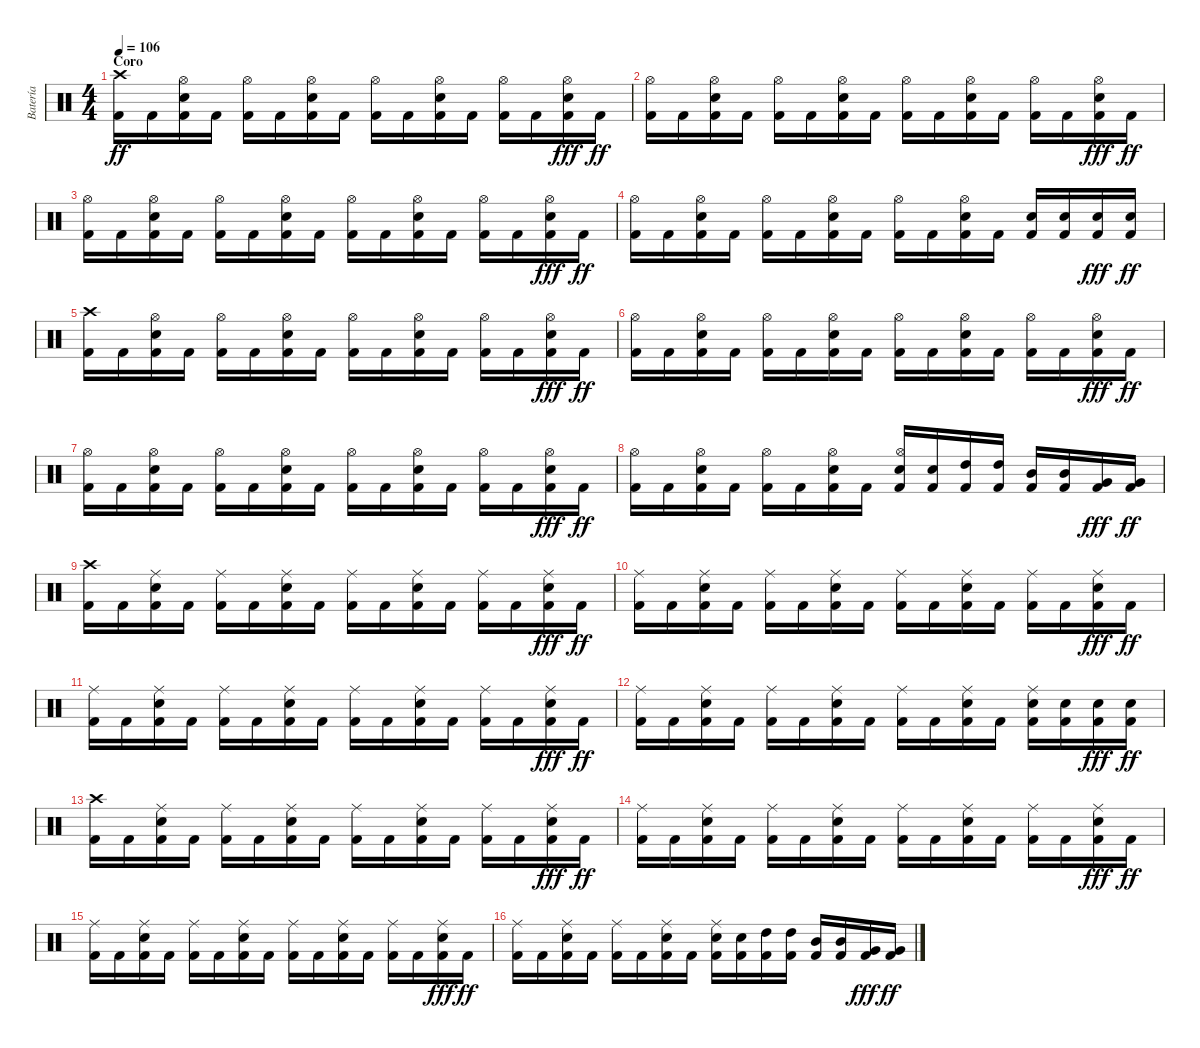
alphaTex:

\track ("Batería" "Batería") {instrument percussion}
\staff {score}
\articulation defaults
\ts (4 4)
\section ("" "Coro")
\tempo 106
\clef neutral
\ks c
("Crash high (hit)" "Kick (hit) 2").16{dy ff} "Kick (hit) 2".16 ("Hi-Hat (open)" "Electric Snare (hit)" "Kick (hit) 2").16 "Kick (hit) 2".16 ("Hi-Hat (open)" "Kick (hit) 2").16 "Kick (hit) 2".16 ("Hi-Hat (open)" "Electric Snare (hit)" "Kick (hit) 2").16 "Kick (hit) 2".16 ("Hi-Hat (open)" "Kick (hit) 2").16 "Kick (hit) 2".16 ("Hi-Hat (open)" "Electric Snare (hit)" "Kick (hit) 2").16 "Kick (hit) 2".16 ("Hi-Hat (open)" "Kick (hit) 2").16 "Kick (hit) 2".16 ("Hi-Hat (open)" "Electric Snare (hit)" "Kick (hit) 2").16{dy fff} "Kick (hit) 2".16{dy ff} |
("Hi-Hat (open)" "Kick (hit) 2").16 "Kick (hit) 2".16 ("Hi-Hat (open)" "Electric Snare (hit)" "Kick (hit) 2").16 "Kick (hit) 2".16 ("Hi-Hat (open)" "Kick (hit) 2").16 "Kick (hit) 2".16 ("Hi-Hat (open)" "Electric Snare (hit)" "Kick (hit) 2").16 "Kick (hit) 2".16 ("Hi-Hat (open)" "Kick (hit) 2").16 "Kick (hit) 2".16 ("Hi-Hat (open)" "Electric Snare (hit)" "Kick (hit) 2").16 "Kick (hit) 2".16 ("Hi-Hat (open)" "Kick (hit) 2").16 "Kick (hit) 2".16 ("Hi-Hat (open)" "Electric Snare (hit)" "Kick (hit) 2").16{dy fff} "Kick (hit) 2".16{dy ff} |
("Hi-Hat (open)" "Kick (hit) 2").16 "Kick (hit) 2".16 ("Hi-Hat (open)" "Electric Snare (hit)" "Kick (hit) 2").16 "Kick (hit) 2".16 ("Hi-Hat (open)" "Kick (hit) 2").16 "Kick (hit) 2".16 ("Hi-Hat (open)" "Electric Snare (hit)" "Kick (hit) 2").16 "Kick (hit) 2".16 ("Hi-Hat (open)" "Kick (hit) 2").16 "Kick (hit) 2".16 ("Hi-Hat (open)" "Electric Snare (hit)" "Kick (hit) 2").16 "Kick (hit) 2".16 ("Hi-Hat (open)" "Kick (hit) 2").16 "Kick (hit) 2".16 ("Hi-Hat (open)" "Electric Snare (hit)" "Kick (hit) 2").16{dy fff} "Kick (hit) 2".16{dy ff} |
("Hi-Hat (open)" "Kick (hit) 2").16 "Kick (hit) 2".16 ("Hi-Hat (open)" "Electric Snare (hit)" "Kick (hit) 2").16 "Kick (hit) 2".16 ("Hi-Hat (open)" "Kick (hit) 2").16 "Kick (hit) 2".16 ("Hi-Hat (open)" "Electric Snare (hit)" "Kick (hit) 2").16 "Kick (hit) 2".16 ("Hi-Hat (open)" "Kick (hit) 2").16 "Kick (hit) 2".16 ("Hi-Hat (open)" "Electric Snare (hit)" "Kick (hit) 2").16 "Kick (hit) 2".16 ("Electric Snare (hit)" "Kick (hit) 2").16 ("Electric Snare (hit)" "Kick (hit) 2").16 ("Electric Snare (hit)" "Kick (hit) 2").16{dy fff} ("Electric Snare (hit)" "Kick (hit) 2").16{dy ff} |
("Crash high (hit)" "Kick (hit) 2").16 "Kick (hit) 2".16 ("Hi-Hat (open)" "Electric Snare (hit)" "Kick (hit) 2").16 "Kick (hit) 2".16 ("Hi-Hat (open)" "Kick (hit) 2").16 "Kick (hit) 2".16 ("Hi-Hat (open)" "Electric Snare (hit)" "Kick (hit) 2").16 "Kick (hit) 2".16 ("Hi-Hat (open)" "Kick (hit) 2").16 "Kick (hit) 2".16 ("Hi-Hat (open)" "Electric Snare (hit)" "Kick (hit) 2").16 "Kick (hit) 2".16 ("Hi-Hat (open)" "Kick (hit) 2").16 "Kick (hit) 2".16 ("Hi-Hat (open)" "Electric Snare (hit)" "Kick (hit) 2").16{dy fff} "Kick (hit) 2".16{dy ff} |
("Hi-Hat (open)" "Kick (hit) 2").16 "Kick (hit) 2".16 ("Hi-Hat (open)" "Electric Snare (hit)" "Kick (hit) 2").16 "Kick (hit) 2".16 ("Hi-Hat (open)" "Kick (hit) 2").16 "Kick (hit) 2".16 ("Hi-Hat (open)" "Electric Snare (hit)" "Kick (hit) 2").16 "Kick (hit) 2".16 ("Hi-Hat (open)" "Kick (hit) 2").16 "Kick (hit) 2".16 ("Hi-Hat (open)" "Electric Snare (hit)" "Kick (hit) 2").16 "Kick (hit) 2".16 ("Hi-Hat (open)" "Kick (hit) 2").16 "Kick (hit) 2".16 ("Hi-Hat (open)" "Electric Snare (hit)" "Kick (hit) 2").16{dy fff} "Kick (hit) 2".16{dy ff} |
("Hi-Hat (open)" "Kick (hit) 2").16 "Kick (hit) 2".16 ("Hi-Hat (open)" "Electric Snare (hit)" "Kick (hit) 2").16 "Kick (hit) 2".16 ("Hi-Hat (open)" "Kick (hit) 2").16 "Kick (hit) 2".16 ("Hi-Hat (open)" "Electric Snare (hit)" "Kick (hit) 2").16 "Kick (hit) 2".16 ("Hi-Hat (open)" "Kick (hit) 2").16 "Kick (hit) 2".16 ("Hi-Hat (open)" "Electric Snare (hit)" "Kick (hit) 2").16 "Kick (hit) 2".16 ("Hi-Hat (open)" "Kick (hit) 2").16 "Kick (hit) 2".16 ("Hi-Hat (open)" "Electric Snare (hit)" "Kick (hit) 2").16{dy fff} "Kick (hit) 2".16{dy ff} |
("Hi-Hat (open)" "Kick (hit) 2").16 "Kick (hit) 2".16 ("Hi-Hat (open)" "Electric Snare (hit)" "Kick (hit) 2").16 "Kick (hit) 2".16 ("Hi-Hat (open)" "Kick (hit) 2").16 "Kick (hit) 2".16 ("Hi-Hat (open)" "Electric Snare (hit)" "Kick (hit) 2").16 "Kick (hit) 2".16 ("Hi-Hat (open)" "Electric Snare (hit)" "Kick (hit) 2").16 ("Electric Snare (hit)" "Kick (hit) 2").16 ("High Tom (hit)" "Kick (hit) 2").16 ("High Tom (hit)" "Kick (hit) 2").16 ("Mid Tom (hit)" "Kick (hit) 2").16 ("Mid Tom (hit)" "Kick (hit) 2").16 ("Very Low Tom (hit)" "Kick (hit) 2").16{dy fff} ("Very Low Tom (hit)" "Kick (hit) 2").16{dy ff} |
("Crash high (hit)" "Kick (hit) 2").16 "Kick (hit) 2".16 ("Ride (middle)" "Electric Snare (hit)" "Kick (hit) 2").16 "Kick (hit) 2".16 ("Ride (middle)" "Kick (hit) 2").16 "Kick (hit) 2".16 ("Ride (middle)" "Electric Snare (hit)" "Kick (hit) 2").16 "Kick (hit) 2".16 ("Ride (middle)" "Kick (hit) 2").16 "Kick (hit) 2".16 ("Ride (middle)" "Electric Snare (hit)" "Kick (hit) 2").16 "Kick (hit) 2".16 ("Ride (middle)" "Kick (hit) 2").16 "Kick (hit) 2".16 ("Ride (middle)" "Electric Snare (hit)" "Kick (hit) 2").16{dy fff} "Kick (hit) 2".16{dy ff} |
("Ride (middle)" "Kick (hit) 2").16 "Kick (hit) 2".16 ("Ride (middle)" "Electric Snare (hit)" "Kick (hit) 2").16 "Kick (hit) 2".16 ("Ride (middle)" "Kick (hit) 2").16 "Kick (hit) 2".16 ("Ride (middle)" "Electric Snare (hit)" "Kick (hit) 2").16 "Kick (hit) 2".16 ("Ride (middle)" "Kick (hit) 2").16 "Kick (hit) 2".16 ("Ride (middle)" "Electric Snare (hit)" "Kick (hit) 2").16 "Kick (hit) 2".16 ("Ride (middle)" "Kick (hit) 2").16 "Kick (hit) 2".16 ("Ride (middle)" "Electric Snare (hit)" "Kick (hit) 2").16{dy fff} "Kick (hit) 2".16{dy ff} |
("Ride (middle)" "Kick (hit) 2").16 "Kick (hit) 2".16 ("Ride (middle)" "Electric Snare (hit)" "Kick (hit) 2").16 "Kick (hit) 2".16 ("Ride (middle)" "Kick (hit) 2").16 "Kick (hit) 2".16 ("Ride (middle)" "Electric Snare (hit)" "Kick (hit) 2").16 "Kick (hit) 2".16 ("Ride (middle)" "Kick (hit) 2").16 "Kick (hit) 2".16 ("Ride (middle)" "Electric Snare (hit)" "Kick (hit) 2").16 "Kick (hit) 2".16 ("Ride (middle)" "Kick (hit) 2").16 "Kick (hit) 2".16 ("Ride (middle)" "Electric Snare (hit)" "Kick (hit) 2").16{dy fff} "Kick (hit) 2".16{dy ff} |
("Ride (middle)" "Kick (hit) 2").16 "Kick (hit) 2".16 ("Ride (middle)" "Electric Snare (hit)" "Kick (hit) 2").16 "Kick (hit) 2".16 ("Ride (middle)" "Kick (hit) 2").16 "Kick (hit) 2".16 ("Ride (middle)" "Electric Snare (hit)" "Kick (hit) 2").16 "Kick (hit) 2".16 ("Ride (middle)" "Kick (hit) 2").16 "Kick (hit) 2".16 ("Ride (middle)" "Electric Snare (hit)" "Kick (hit) 2").16 "Kick (hit) 2".16 ("Ride (middle)" "Electric Snare (hit)" "Kick (hit) 2").16 ("Electric Snare (hit)" "Kick (hit) 2").16 ("Electric Snare (hit)" "Kick (hit) 2").16{dy fff} ("Electric Snare (hit)" "Kick (hit) 2").16{dy ff} |
("Crash high (hit)" "Kick (hit) 2").16 "Kick (hit) 2".16 ("Ride (middle)" "Electric Snare (hit)" "Kick (hit) 2").16 "Kick (hit) 2".16 ("Ride (middle)" "Kick (hit) 2").16 "Kick (hit) 2".16 ("Ride (middle)" "Electric Snare (hit)" "Kick (hit) 2").16 "Kick (hit) 2".16 ("Ride (middle)" "Kick (hit) 2").16 "Kick (hit) 2".16 ("Ride (middle)" "Electric Snare (hit)" "Kick (hit) 2").16 "Kick (hit) 2".16 ("Ride (middle)" "Kick (hit) 2").16 "Kick (hit) 2".16 ("Ride (middle)" "Electric Snare (hit)" "Kick (hit) 2").16{dy fff} "Kick (hit) 2".16{dy ff} |
("Ride (middle)" "Kick (hit) 2").16 "Kick (hit) 2".16 ("Ride (middle)" "Electric Snare (hit)" "Kick (hit) 2").16 "Kick (hit) 2".16 ("Ride (middle)" "Kick (hit) 2").16 "Kick (hit) 2".16 ("Ride (middle)" "Electric Snare (hit)" "Kick (hit) 2").16 "Kick (hit) 2".16 ("Ride (middle)" "Kick (hit) 2").16 "Kick (hit) 2".16 ("Ride (middle)" "Electric Snare (hit)" "Kick (hit) 2").16 "Kick (hit) 2".16 ("Ride (middle)" "Kick (hit) 2").16 "Kick (hit) 2".16 ("Ride (middle)" "Electric Snare (hit)" "Kick (hit) 2").16{dy fff} "Kick (hit) 2".16{dy ff} |
("Ride (middle)" "Kick (hit) 2").16 "Kick (hit) 2".16 ("Ride (middle)" "Electric Snare (hit)" "Kick (hit) 2").16 "Kick (hit) 2".16 ("Ride (middle)" "Kick (hit) 2").16 "Kick (hit) 2".16 ("Ride (middle)" "Electric Snare (hit)" "Kick (hit) 2").16 "Kick (hit) 2".16 ("Ride (middle)" "Kick (hit) 2").16 "Kick (hit) 2".16 ("Ride (middle)" "Electric Snare (hit)" "Kick (hit) 2").16 "Kick (hit) 2".16 ("Ride (middle)" "Kick (hit) 2").16 "Kick (hit) 2".16 ("Ride (middle)" "Electric Snare (hit)" "Kick (hit) 2").16{dy fff} "Kick (hit) 2".16{dy ff} |
("Ride (middle)" "Kick (hit) 2").16 "Kick (hit) 2".16 ("Ride (middle)" "Electric Snare (hit)" "Kick (hit) 2").16 "Kick (hit) 2".16 ("Ride (middle)" "Kick (hit) 2").16 "Kick (hit) 2".16 ("Ride (middle)" "Electric Snare (hit)" "Kick (hit) 2").16 "Kick (hit) 2".16 ("Ride (middle)" "Electric Snare (hit)" "Kick (hit) 2").16 ("Electric Snare (hit)" "Kick (hit) 2").16 ("High Tom (hit)" "Kick (hit) 2").16 ("High Tom (hit)" "Kick (hit) 2").16 ("Mid Tom (hit)" "Kick (hit) 2").16 ("Mid Tom (hit)" "Kick (hit) 2").16 ("Very Low Tom (hit)" "Kick (hit) 2").16{dy fff} ("Very Low Tom (hit)" "Kick (hit) 2").16{dy ff}
